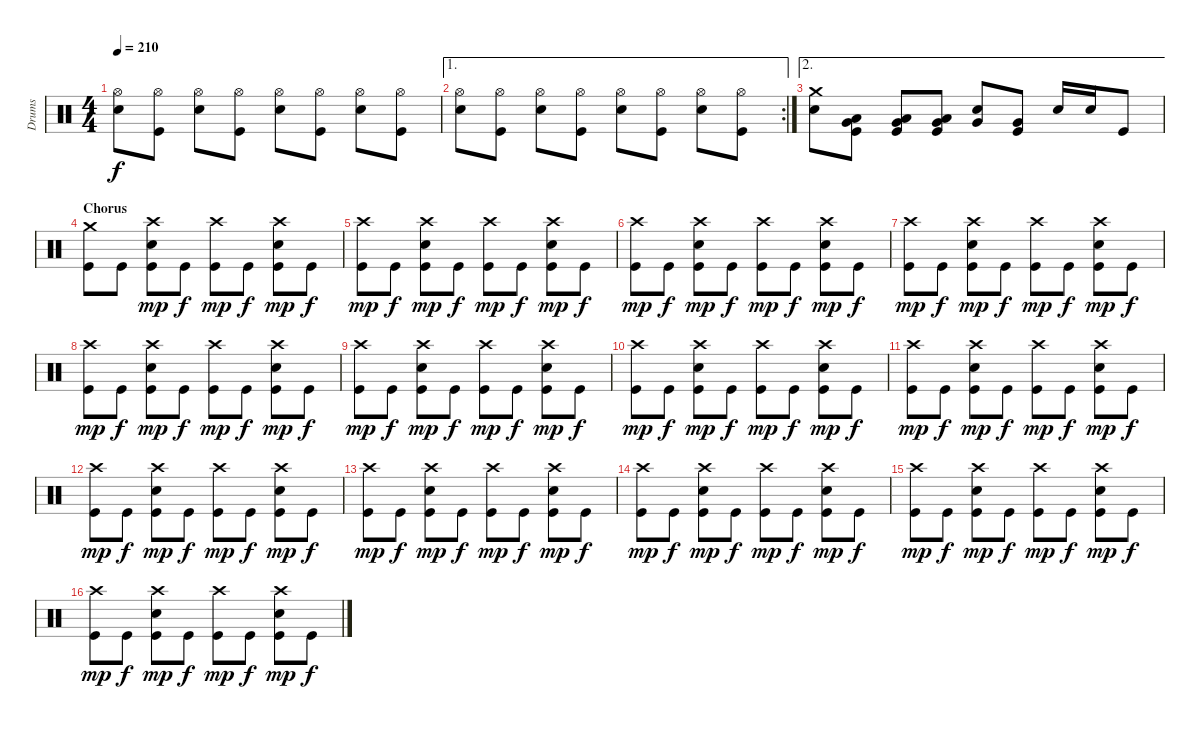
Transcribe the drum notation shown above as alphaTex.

\track ("Drums" "Drums") {instrument percussion}
\staff {score}
\articulation defaults
\ts (4 4)
\tempo 210
\clef neutral
\ks c
("Hi-Hat (open)" "Electric Snare (hit)").8{dy f} ("Hi-Hat (open)" "Kick (hit)").8 ("Hi-Hat (open)" "Electric Snare (hit)").8 ("Hi-Hat (open)" "Kick (hit)").8 ("Hi-Hat (open)" "Electric Snare (hit)").8 ("Hi-Hat (open)" "Kick (hit)").8 ("Hi-Hat (open)" "Electric Snare (hit)").8 ("Hi-Hat (open)" "Kick (hit)").8 |
\ae 1
\rc 2
("Hi-Hat (open)" "Electric Snare (hit)").8 ("Hi-Hat (open)" "Kick (hit)").8 ("Hi-Hat (open)" "Electric Snare (hit)").8 ("Hi-Hat (open)" "Kick (hit)").8 ("Hi-Hat (open)" "Electric Snare (hit)").8 ("Hi-Hat (open)" "Kick (hit)").8 ("Hi-Hat (open)" "Electric Snare (hit)").8 ("Hi-Hat (open)" "Kick (hit)").8 |
\ae 2
("Crash medium (hit)" "Electric Snare (hit)").8 ("Very Low Tom (hit)" "Low Tom (hit)" "Kick (hit)").8 ("Very Low Tom (hit)" "Low Tom (hit)" "Kick (hit)").8 ("Very Low Tom (hit)" "Low Tom (hit)" "Kick (hit)").8 ("Very Low Tom (hit)" "Electric Snare (hit)").8 ("Very Low Tom (hit)" "Kick (hit)").8 "Electric Snare (hit)".16 "Electric Snare (hit)".16 "Kick (hit)".8 |
\section ("" "Chorus")
("Crash medium (hit)" "Kick (hit)").8 "Kick (hit)".8 ("Crash high (hit)" "Electric Snare (hit)" "Kick (hit)").8{dy mp} "Kick (hit)".8{dy f} ("Crash high (hit)" "Kick (hit)").8{dy mp} "Kick (hit)".8{dy f} ("Crash high (hit)" "Electric Snare (hit)" "Kick (hit)").8{dy mp} "Kick (hit)".8{dy f} |
("Crash high (hit)" "Kick (hit)").8{dy mp} "Kick (hit)".8{dy f} ("Crash high (hit)" "Electric Snare (hit)" "Kick (hit)").8{dy mp} "Kick (hit)".8{dy f} ("Crash high (hit)" "Kick (hit)").8{dy mp} "Kick (hit)".8{dy f} ("Crash high (hit)" "Electric Snare (hit)" "Kick (hit)").8{dy mp} "Kick (hit)".8{dy f} |
("Crash high (hit)" "Kick (hit)").8{dy mp} "Kick (hit)".8{dy f} ("Crash high (hit)" "Electric Snare (hit)" "Kick (hit)").8{dy mp} "Kick (hit)".8{dy f} ("Crash high (hit)" "Kick (hit)").8{dy mp} "Kick (hit)".8{dy f} ("Crash high (hit)" "Electric Snare (hit)" "Kick (hit)").8{dy mp} "Kick (hit)".8{dy f} |
("Crash high (hit)" "Kick (hit)").8{dy mp} "Kick (hit)".8{dy f} ("Crash high (hit)" "Electric Snare (hit)" "Kick (hit)").8{dy mp} "Kick (hit)".8{dy f} ("Crash high (hit)" "Kick (hit)").8{dy mp} "Kick (hit)".8{dy f} ("Crash high (hit)" "Electric Snare (hit)" "Kick (hit)").8{dy mp} "Kick (hit)".8{dy f} |
("Crash high (hit)" "Kick (hit)").8{dy mp} "Kick (hit)".8{dy f} ("Crash high (hit)" "Electric Snare (hit)" "Kick (hit)").8{dy mp} "Kick (hit)".8{dy f} ("Crash high (hit)" "Kick (hit)").8{dy mp} "Kick (hit)".8{dy f} ("Crash high (hit)" "Electric Snare (hit)" "Kick (hit)").8{dy mp} "Kick (hit)".8{dy f} |
("Crash high (hit)" "Kick (hit)").8{dy mp} "Kick (hit)".8{dy f} ("Crash high (hit)" "Electric Snare (hit)" "Kick (hit)").8{dy mp} "Kick (hit)".8{dy f} ("Crash high (hit)" "Kick (hit)").8{dy mp} "Kick (hit)".8{dy f} ("Crash high (hit)" "Electric Snare (hit)" "Kick (hit)").8{dy mp} "Kick (hit)".8{dy f} |
("Crash high (hit)" "Kick (hit)").8{dy mp} "Kick (hit)".8{dy f} ("Crash high (hit)" "Electric Snare (hit)" "Kick (hit)").8{dy mp} "Kick (hit)".8{dy f} ("Crash high (hit)" "Kick (hit)").8{dy mp} "Kick (hit)".8{dy f} ("Crash high (hit)" "Electric Snare (hit)" "Kick (hit)").8{dy mp} "Kick (hit)".8{dy f} |
("Crash high (hit)" "Kick (hit)").8{dy mp} "Kick (hit)".8{dy f} ("Crash high (hit)" "Electric Snare (hit)" "Kick (hit)").8{dy mp} "Kick (hit)".8{dy f} ("Crash high (hit)" "Kick (hit)").8{dy mp} "Kick (hit)".8{dy f} ("Crash high (hit)" "Electric Snare (hit)" "Kick (hit)").8{dy mp} "Kick (hit)".8{dy f} |
("Crash high (hit)" "Kick (hit)").8{dy mp} "Kick (hit)".8{dy f} ("Crash high (hit)" "Electric Snare (hit)" "Kick (hit)").8{dy mp} "Kick (hit)".8{dy f} ("Crash high (hit)" "Kick (hit)").8{dy mp} "Kick (hit)".8{dy f} ("Crash high (hit)" "Electric Snare (hit)" "Kick (hit)").8{dy mp} "Kick (hit)".8{dy f} |
("Crash high (hit)" "Kick (hit)").8{dy mp} "Kick (hit)".8{dy f} ("Crash high (hit)" "Electric Snare (hit)" "Kick (hit)").8{dy mp} "Kick (hit)".8{dy f} ("Crash high (hit)" "Kick (hit)").8{dy mp} "Kick (hit)".8{dy f} ("Crash high (hit)" "Electric Snare (hit)" "Kick (hit)").8{dy mp} "Kick (hit)".8{dy f} |
("Crash high (hit)" "Kick (hit)").8{dy mp} "Kick (hit)".8{dy f} ("Crash high (hit)" "Electric Snare (hit)" "Kick (hit)").8{dy mp} "Kick (hit)".8{dy f} ("Crash high (hit)" "Kick (hit)").8{dy mp} "Kick (hit)".8{dy f} ("Crash high (hit)" "Electric Snare (hit)" "Kick (hit)").8{dy mp} "Kick (hit)".8{dy f} |
("Crash high (hit)" "Kick (hit)").8{dy mp} "Kick (hit)".8{dy f} ("Crash high (hit)" "Electric Snare (hit)" "Kick (hit)").8{dy mp} "Kick (hit)".8{dy f} ("Crash high (hit)" "Kick (hit)").8{dy mp} "Kick (hit)".8{dy f} ("Crash high (hit)" "Electric Snare (hit)" "Kick (hit)").8{dy mp} "Kick (hit)".8{dy f} |
("Crash high (hit)" "Kick (hit)").8{dy mp} "Kick (hit)".8{dy f} ("Crash high (hit)" "Electric Snare (hit)" "Kick (hit)").8{dy mp} "Kick (hit)".8{dy f} ("Crash high (hit)" "Kick (hit)").8{dy mp} "Kick (hit)".8{dy f} ("Crash high (hit)" "Electric Snare (hit)" "Kick (hit)").8{dy mp} "Kick (hit)".8{dy f}
